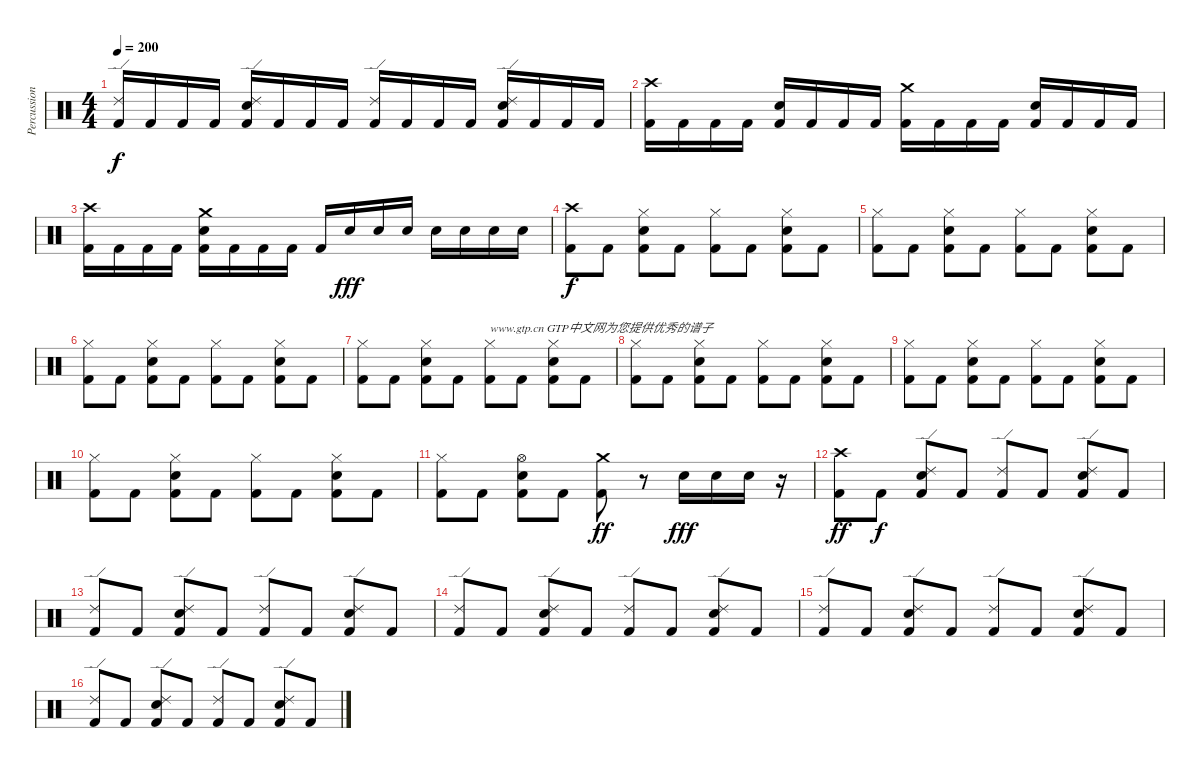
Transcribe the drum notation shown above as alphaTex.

\track ("Percussions 1" "Percussion") {instrument percussion}
\staff {score}
\articulation defaults
\ts (4 4)
\tempo 200
\clef neutral
\ks c
("Ride (edge) 2" "Kick (hit) 2").16{dy f} "Kick (hit) 2".16 "Kick (hit) 2".16 "Kick (hit) 2".16 ("Ride (edge) 2" "Snare (hit) 2" "Kick (hit) 2").16 "Kick (hit) 2".16 "Kick (hit) 2".16 "Kick (hit) 2".16 ("Ride (edge) 2" "Kick (hit) 2").16 "Kick (hit) 2".16 "Kick (hit) 2".16 "Kick (hit) 2".16 ("Ride (edge) 2" "Snare (hit) 2" "Kick (hit) 2").16 "Kick (hit) 2".16 "Kick (hit) 2".16 "Kick (hit) 2".16 |
("Crash high (hit)" "Kick (hit) 2").16 "Kick (hit) 2".16 "Kick (hit) 2".16 "Kick (hit) 2".16 ("Snare (hit) 2" "Kick (hit) 2").16 "Kick (hit) 2".16 "Kick (hit) 2".16 "Kick (hit) 2".16 ("Crash medium (hit)" "Kick (hit) 2").16 "Kick (hit) 2".16 "Kick (hit) 2".16 "Kick (hit) 2".16 ("Snare (hit) 2" "Kick (hit) 2").16 "Kick (hit) 2".16 "Kick (hit) 2".16 "Kick (hit) 2".16 |
("Crash high (hit)" "Kick (hit) 2").16 "Kick (hit) 2".16 "Kick (hit) 2".16 "Kick (hit) 2".16 ("Crash medium (hit)" "Snare (hit) 2" "Kick (hit) 2").16 "Kick (hit) 2".16 "Kick (hit) 2".16 "Kick (hit) 2".16 "Kick (hit) 2".16 "Snare (hit) 2".16{dy fff} "Snare (hit) 2".16 "Snare (hit) 2".16 "Snare (hit) 2".16 "Snare (hit) 2".16 "Snare (hit) 2".16 "Snare (hit) 2".16 |
("Crash high (hit)" "Kick (hit) 2").8{dy f} "Kick (hit) 2".8 ("Hi-Hat (closed)" "Snare (hit) 2" "Kick (hit) 2").8 "Kick (hit) 2".8 ("Hi-Hat (closed)" "Kick (hit) 2").8 "Kick (hit) 2".8 ("Hi-Hat (closed)" "Snare (hit) 2" "Kick (hit) 2").8 "Kick (hit) 2".8 |
("Hi-Hat (closed)" "Kick (hit) 2").8 "Kick (hit) 2".8 ("Hi-Hat (closed)" "Snare (hit) 2" "Kick (hit) 2").8 "Kick (hit) 2".8 ("Hi-Hat (closed)" "Kick (hit) 2").8 "Kick (hit) 2".8 ("Hi-Hat (closed)" "Snare (hit) 2" "Kick (hit) 2").8 "Kick (hit) 2".8 |
("Hi-Hat (closed)" "Kick (hit) 2").8 "Kick (hit) 2".8 ("Hi-Hat (closed)" "Snare (hit) 2" "Kick (hit) 2").8 "Kick (hit) 2".8 ("Hi-Hat (closed)" "Kick (hit) 2").8 "Kick (hit) 2".8 ("Hi-Hat (closed)" "Snare (hit) 2" "Kick (hit) 2").8 "Kick (hit) 2".8 |
("Hi-Hat (closed)" "Kick (hit) 2").8 "Kick (hit) 2".8 ("Hi-Hat (closed)" "Snare (hit) 2" "Kick (hit) 2").8 "Kick (hit) 2".8 ("Hi-Hat (closed)" "Kick (hit) 2").8{txt "www.gtp.cn GTP中文网为您提供优秀的谱子"} "Kick (hit) 2".8 ("Hi-Hat (closed)" "Snare (hit) 2" "Kick (hit) 2").8 "Kick (hit) 2".8 |
("Hi-Hat (closed)" "Kick (hit) 2").8 "Kick (hit) 2".8 ("Hi-Hat (closed)" "Snare (hit) 2" "Kick (hit) 2").8 "Kick (hit) 2".8 ("Hi-Hat (closed)" "Kick (hit) 2").8 "Kick (hit) 2".8 ("Hi-Hat (closed)" "Snare (hit) 2" "Kick (hit) 2").8 "Kick (hit) 2".8 |
("Hi-Hat (closed)" "Kick (hit) 2").8 "Kick (hit) 2".8 ("Hi-Hat (closed)" "Snare (hit) 2" "Kick (hit) 2").8 "Kick (hit) 2".8 ("Hi-Hat (closed)" "Kick (hit) 2").8 "Kick (hit) 2".8 ("Hi-Hat (closed)" "Snare (hit) 2" "Kick (hit) 2").8 "Kick (hit) 2".8 |
("Hi-Hat (closed)" "Kick (hit) 2").8 "Kick (hit) 2".8 ("Hi-Hat (closed)" "Snare (hit) 2" "Kick (hit) 2").8 "Kick (hit) 2".8 ("Hi-Hat (closed)" "Kick (hit) 2").8 "Kick (hit) 2".8 ("Hi-Hat (closed)" "Snare (hit) 2" "Kick (hit) 2").8 "Kick (hit) 2".8 |
("Hi-Hat (closed)" "Kick (hit) 2").8 "Kick (hit) 2".8 ("Hi-Hat (open)" "Snare (hit) 2" "Kick (hit) 2").8 "Kick (hit) 2".8 ("Crash medium (hit)" "Kick (hit) 2").8{dy ff} r.8 "Snare (hit) 2".16{dy fff} "Snare (hit) 2".16 "Snare (hit) 2".16 r.16 |
("Crash high (hit)" "Kick (hit) 2").8{dy ff} "Kick (hit) 2".8{dy f} ("Ride (edge) 2" "Snare (hit) 2" "Kick (hit) 2").8 "Kick (hit) 2".8 ("Ride (edge) 2" "Kick (hit) 2").8 "Kick (hit) 2".8 ("Ride (edge) 2" "Snare (hit) 2" "Kick (hit) 2").8 "Kick (hit) 2".8 |
("Ride (edge) 2" "Kick (hit) 2").8 "Kick (hit) 2".8 ("Ride (edge) 2" "Snare (hit) 2" "Kick (hit) 2").8 "Kick (hit) 2".8 ("Ride (edge) 2" "Kick (hit) 2").8 "Kick (hit) 2".8 ("Ride (edge) 2" "Snare (hit) 2" "Kick (hit) 2").8 "Kick (hit) 2".8 |
("Ride (edge) 2" "Kick (hit) 2").8 "Kick (hit) 2".8 ("Ride (edge) 2" "Snare (hit) 2" "Kick (hit) 2").8 "Kick (hit) 2".8 ("Ride (edge) 2" "Kick (hit) 2").8 "Kick (hit) 2".8 ("Ride (edge) 2" "Snare (hit) 2" "Kick (hit) 2").8 "Kick (hit) 2".8 |
("Ride (edge) 2" "Kick (hit) 2").8 "Kick (hit) 2".8 ("Ride (edge) 2" "Snare (hit) 2" "Kick (hit) 2").8 "Kick (hit) 2".8 ("Ride (edge) 2" "Kick (hit) 2").8 "Kick (hit) 2".8 ("Ride (edge) 2" "Snare (hit) 2" "Kick (hit) 2").8 "Kick (hit) 2".8 |
("Ride (edge) 2" "Kick (hit) 2").8 "Kick (hit) 2".8 ("Ride (edge) 2" "Snare (hit) 2" "Kick (hit) 2").8 "Kick (hit) 2".8 ("Ride (edge) 2" "Kick (hit) 2").8 "Kick (hit) 2".8 ("Ride (edge) 2" "Snare (hit) 2" "Kick (hit) 2").8 "Kick (hit) 2".8
